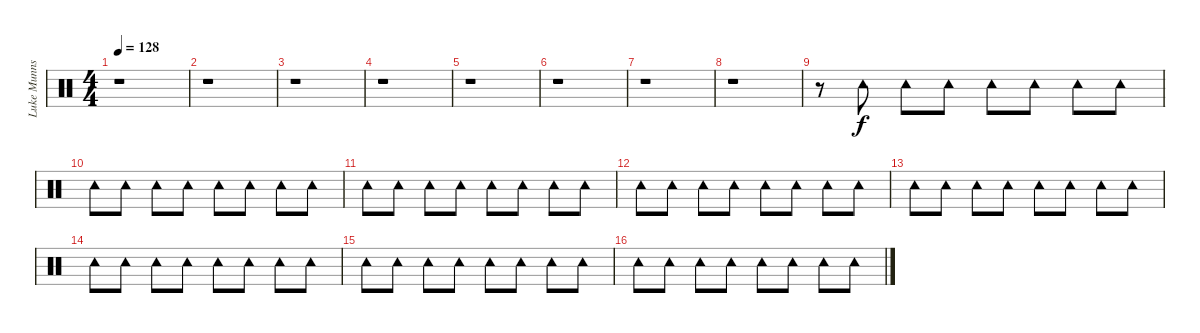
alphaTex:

\track ("Luke Munns" "Luke Munns") {instrument percussion}
\staff {score}
\articulation defaults
\ts (4 4)
\tempo 128
\clef neutral
\ks c
r.1{dy f} |
r.1 |
r.1 |
r.1 |
r.1 |
r.1 |
r.1 |
r.1 |
r.8 "Tambourine (hit)".8 "Tambourine (hit)".8 "Tambourine (hit)".8 "Tambourine (hit)".8 "Tambourine (hit)".8 "Tambourine (hit)".8 "Tambourine (hit)".8 |
"Tambourine (hit)".8 "Tambourine (hit)".8 "Tambourine (hit)".8 "Tambourine (hit)".8 "Tambourine (hit)".8 "Tambourine (hit)".8 "Tambourine (hit)".8 "Tambourine (hit)".8 |
"Tambourine (hit)".8 "Tambourine (hit)".8 "Tambourine (hit)".8 "Tambourine (hit)".8 "Tambourine (hit)".8 "Tambourine (hit)".8 "Tambourine (hit)".8 "Tambourine (hit)".8 |
"Tambourine (hit)".8 "Tambourine (hit)".8 "Tambourine (hit)".8 "Tambourine (hit)".8 "Tambourine (hit)".8 "Tambourine (hit)".8 "Tambourine (hit)".8 "Tambourine (hit)".8 |
"Tambourine (hit)".8 "Tambourine (hit)".8 "Tambourine (hit)".8 "Tambourine (hit)".8 "Tambourine (hit)".8 "Tambourine (hit)".8 "Tambourine (hit)".8 "Tambourine (hit)".8 |
"Tambourine (hit)".8 "Tambourine (hit)".8 "Tambourine (hit)".8 "Tambourine (hit)".8 "Tambourine (hit)".8 "Tambourine (hit)".8 "Tambourine (hit)".8 "Tambourine (hit)".8 |
"Tambourine (hit)".8 "Tambourine (hit)".8 "Tambourine (hit)".8 "Tambourine (hit)".8 "Tambourine (hit)".8 "Tambourine (hit)".8 "Tambourine (hit)".8 "Tambourine (hit)".8 |
"Tambourine (hit)".8 "Tambourine (hit)".8 "Tambourine (hit)".8 "Tambourine (hit)".8 "Tambourine (hit)".8 "Tambourine (hit)".8 "Tambourine (hit)".8 "Tambourine (hit)".8
